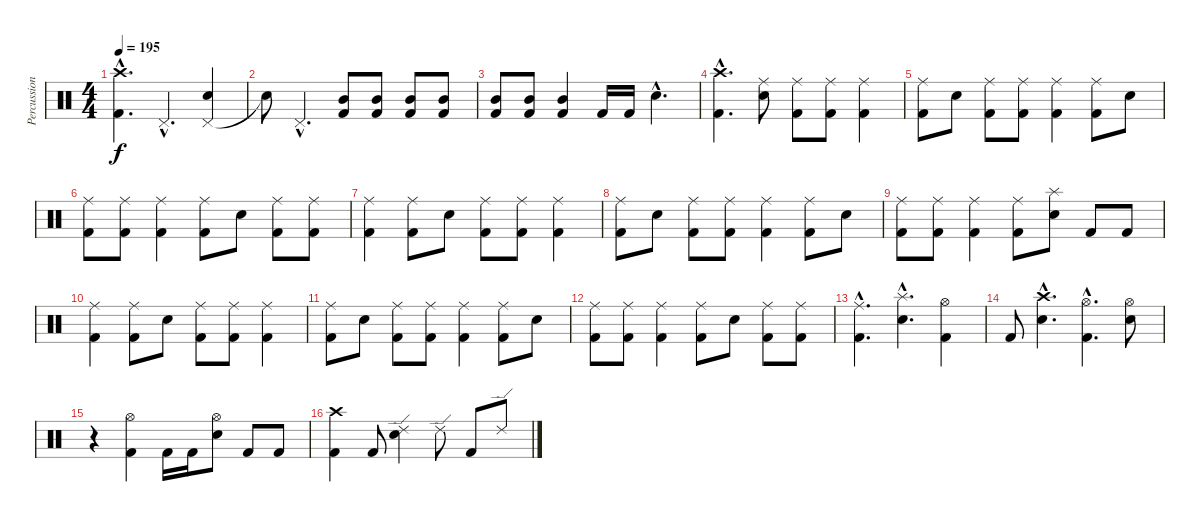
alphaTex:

\track ("Percussion" "Percussion") {instrument percussion}
\staff {score}
\articulation defaults
\ts (4 4)
\tempo 195
\clef neutral
\ks c
("Crash high (hit)"{hac} "Kick (hit) 2"{hac}).4{d dy f} "Pedal Hi-Hat (hit)"{hac}.4{d} ("Pedal Hi-Hat (hit)" "Snare (hit) 2").4 |
"Snare (hit)"{t}.8 "Pedal Hi-Hat (hit)"{hac}.4{d} ("Mid Tom (hit)" "Kick (hit) 2").8 ("Mid Tom (hit)" "Kick (hit) 2").8 ("Mid Tom (hit)" "Kick (hit) 2").8 ("Mid Tom (hit)" "Kick (hit) 2").8 |
("Mid Tom (hit)" "Kick (hit) 2").8 ("Mid Tom (hit)" "Kick (hit) 2").8 ("Mid Tom (hit)" "Kick (hit) 2").4 "Kick (hit) 2".16 "Kick (hit) 2".16 "Snare (hit) 2"{hac}.4{d} |
("Crash high (hit)"{hac} "Kick (hit) 2"{hac}).4{d} ("Ride (middle)" "Snare (hit) 2").8 ("Ride (middle)" "Kick (hit) 2").8 ("Ride (middle)" "Kick (hit) 2").8 ("Ride (middle)" "Kick (hit) 2").4 |
("Ride (middle)" "Kick (hit) 2").8 "Snare (hit) 2".8 ("Ride (middle)" "Kick (hit) 2").8 ("Ride (middle)" "Kick (hit) 2").8 ("Ride (middle)" "Kick (hit) 2").4 ("Ride (middle)" "Kick (hit) 2").8 "Snare (hit) 2".8 |
("Ride (middle)" "Kick (hit) 2").8 ("Ride (middle)" "Kick (hit) 2").8 ("Ride (middle)" "Kick (hit) 2").4 ("Ride (middle)" "Kick (hit) 2").8 "Snare (hit) 2".8 ("Ride (middle)" "Kick (hit) 2").8 ("Ride (middle)" "Kick (hit) 2").8 |
("Ride (middle)" "Kick (hit) 2").4 ("Ride (middle)" "Kick (hit) 2").8 "Snare (hit) 2".8 ("Ride (middle)" "Kick (hit) 2").8 ("Ride (middle)" "Kick (hit) 2").8 ("Ride (middle)" "Kick (hit) 2").4 |
("Ride (middle)" "Kick (hit) 2").8 "Snare (hit) 2".8 ("Ride (middle)" "Kick (hit) 2").8 ("Ride (middle)" "Kick (hit) 2").8 ("Ride (middle)" "Kick (hit) 2").4 ("Ride (middle)" "Kick (hit) 2").8 "Snare (hit) 2".8 |
("Ride (middle)" "Kick (hit) 2").8 ("Ride (middle)" "Kick (hit) 2").8 ("Ride (middle)" "Kick (hit) 2").4 ("Ride (middle)" "Kick (hit) 2").8 ("Splash (hit)" "Snare (hit) 2").8 "Kick (hit) 2".8 "Kick (hit) 2".8 |
("Ride (middle)" "Kick (hit) 2").4 ("Ride (middle)" "Kick (hit) 2").8 "Snare (hit) 2".8 ("Ride (middle)" "Kick (hit) 2").8 ("Ride (middle)" "Kick (hit) 2").8 ("Ride (middle)" "Kick (hit) 2").4 |
("Ride (middle)" "Kick (hit) 2").8 "Snare (hit) 2".8 ("Ride (middle)" "Kick (hit) 2").8 ("Ride (middle)" "Kick (hit) 2").8 ("Ride (middle)" "Kick (hit) 2").4 ("Ride (middle)" "Kick (hit) 2").8 "Snare (hit) 2".8 |
("Ride (middle)" "Kick (hit) 2").8 ("Ride (middle)" "Kick (hit) 2").8 ("Ride (middle)" "Kick (hit) 2").4 ("Ride (middle)" "Kick (hit) 2").8 "Snare (hit) 2".8 ("Ride (middle)" "Kick (hit) 2").8 ("Ride (middle)" "Kick (hit) 2").8 |
("Ride (middle)"{hac} "Kick (hit) 2"{hac}).4{d} ("Splash (hit)"{hac} "Snare (hit) 2"{hac}).4{d} ("Hi-Hat (open)" "Kick (hit) 2").4 |
"Kick (hit) 2".8 ("Crash high (hit)"{hac} "Snare (hit) 2"{hac}).4{d} ("Hi-Hat (open)"{hac} "Kick (hit) 2"{hac}).4{d} ("Hi-Hat (open)" "Snare (hit) 2").8 |
r.4 ("Hi-Hat (open)" "Kick (hit) 2").4 "Kick (hit) 2".16 "Kick (hit) 2".16 ("Hi-Hat (open)" "Snare (hit) 2").8 "Kick (hit) 2".8 "Kick (hit) 2".8 |
("Crash high (hit)" "Kick (hit) 2").4 "Kick (hit) 2".8 ("Ride (edge) 2" "Snare (hit) 2").4 "Ride (edge) 2".8 "Kick (hit) 2".8 "Ride (edge) 2".8
